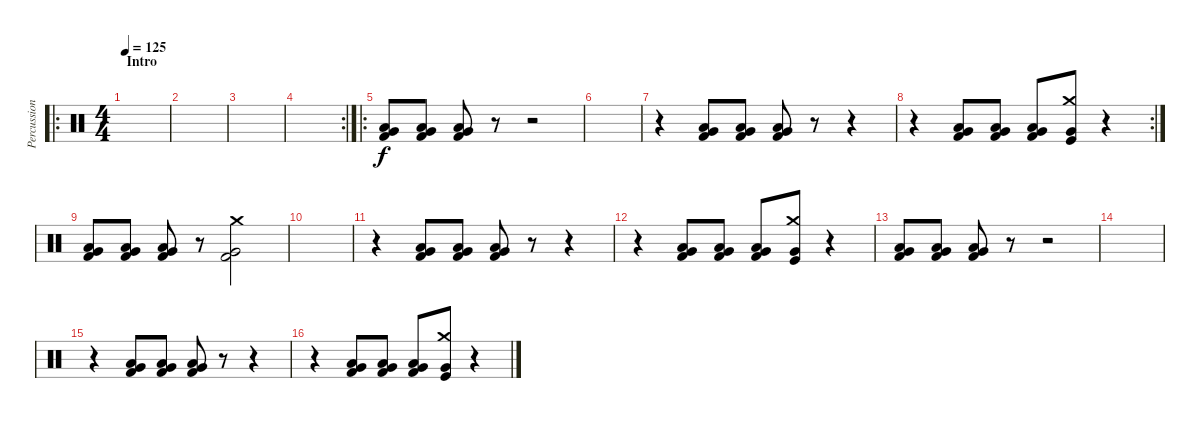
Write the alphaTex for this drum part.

\track ("Percussion" "Percussion") {instrument percussion}
\staff {score}
\articulation defaults
\ro
\ts (4 4)
\section ("" "Intro")
\tempo 125
\clef neutral
\ks c
|
|
|
\rc 2
|
\ro
("Low Tom (hit)" "Very Low Tom (hit)" "Kick (hit) 2").8 ("Low Tom (hit)" "Very Low Tom (hit)" "Kick (hit) 2").8 ("Low Tom (hit)" "Very Low Tom (hit)" "Kick (hit) 2").8 r.8 r.2 |
|
r.4 ("Low Tom (hit)" "Very Low Tom (hit)" "Kick (hit) 2").8 ("Low Tom (hit)" "Very Low Tom (hit)" "Kick (hit) 2").8 ("Low Tom (hit)" "Very Low Tom (hit)" "Kick (hit) 2").8 r.8 r.4 |
\rc 2
r.4 ("Low Tom (hit)" "Very Low Tom (hit)" "Kick (hit) 2").8 ("Low Tom (hit)" "Very Low Tom (hit)" "Kick (hit) 2").8 ("Low Tom (hit)" "Very Low Tom (hit)" "Kick (hit) 2").8 ("Crash medium (hit)" "Very Low Tom (hit)" "Kick (hit)").8 r.4 |
("Low Tom (hit)" "Very Low Tom (hit)" "Kick (hit) 2").8 ("Low Tom (hit)" "Very Low Tom (hit)" "Kick (hit) 2").8 ("Low Tom (hit)" "Very Low Tom (hit)" "Kick (hit) 2").8 r.8 ("Crash medium (hit)" "Very Low Tom (hit)" "Kick (hit) 2").2 |
|
r.4 ("Low Tom (hit)" "Very Low Tom (hit)" "Kick (hit) 2").8 ("Low Tom (hit)" "Very Low Tom (hit)" "Kick (hit) 2").8 ("Low Tom (hit)" "Very Low Tom (hit)" "Kick (hit) 2").8 r.8 r.4 |
r.4 ("Low Tom (hit)" "Very Low Tom (hit)" "Kick (hit) 2").8 ("Low Tom (hit)" "Very Low Tom (hit)" "Kick (hit) 2").8 ("Low Tom (hit)" "Very Low Tom (hit)" "Kick (hit) 2").8 ("Crash medium (hit)" "Very Low Tom (hit)" "Kick (hit)").8 r.4 |
("Low Tom (hit)" "Very Low Tom (hit)" "Kick (hit) 2").8 ("Low Tom (hit)" "Very Low Tom (hit)" "Kick (hit) 2").8 ("Low Tom (hit)" "Very Low Tom (hit)" "Kick (hit) 2").8 r.8 r.2 |
|
r.4 ("Low Tom (hit)" "Very Low Tom (hit)" "Kick (hit) 2").8 ("Low Tom (hit)" "Very Low Tom (hit)" "Kick (hit) 2").8 ("Low Tom (hit)" "Very Low Tom (hit)" "Kick (hit) 2").8 r.8 r.4 |
r.4 ("Low Tom (hit)" "Very Low Tom (hit)" "Kick (hit) 2").8 ("Low Tom (hit)" "Very Low Tom (hit)" "Kick (hit) 2").8 ("Low Tom (hit)" "Very Low Tom (hit)" "Kick (hit) 2").8 ("Crash medium (hit)" "Very Low Tom (hit)" "Kick (hit)").8 r.4
